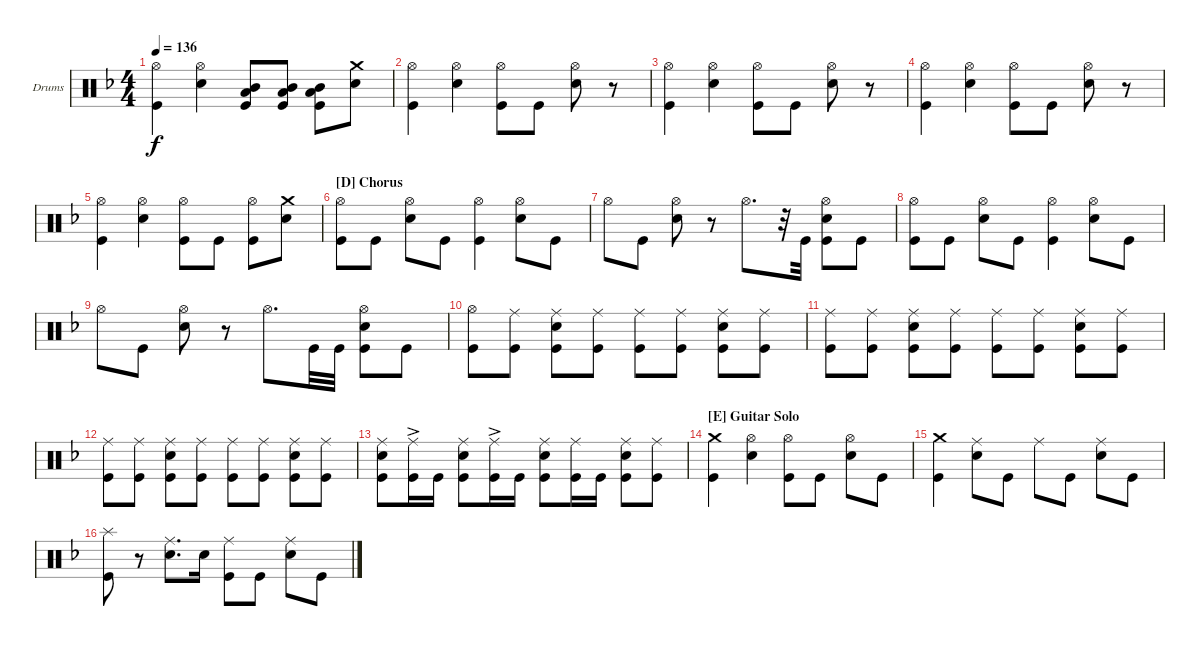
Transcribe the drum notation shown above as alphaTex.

\defaultSystemsLayout 4
\bracketExtendMode groupsimilarinstruments
\firstSystemTrackNameOrientation horizontal
\otherSystemsTrackNameOrientation horizontal
\track ("Drumkit" "Drums") {instrument percussion}
\staff {score}
\articulation defaults
\ts (4 4)
\tempo 136
\clef neutral
\scale
0.958386
\ks f
("Hi-Hat (open)" "Kick (hit)").4{dy f} ("Hi-Hat (open)" "Snare (hit) 2").4 ("Kick (hit)" "Mid Tom (hit)" "Low Tom (hit)").8 ("Kick (hit)" "Mid Tom (hit)" "Low Tom (hit)").8 ("Kick (hit)" "Mid Tom (hit)" "Low Tom (hit)").8 ("Crash medium (hit)" "Snare (hit) 2").8 |
\scale
1.08323 ("Hi-Hat (open)" "Kick (hit)").4 ("Hi-Hat (open)" "Snare (hit) 2").4 ("Hi-Hat (open)" "Kick (hit)").8 "Kick (hit)".8 ("Hi-Hat (open)" "Snare (hit) 2").8 r.8 |
\scale
0.958386 ("Hi-Hat (open)" "Kick (hit)").4 ("Hi-Hat (open)" "Snare (hit) 2").4 ("Hi-Hat (open)" "Kick (hit)").8 "Kick (hit)".8 ("Hi-Hat (open)" "Snare (hit) 2").8 r.8 |
\scale
0.958386 ("Hi-Hat (open)" "Kick (hit)").4 ("Hi-Hat (open)" "Snare (hit) 2").4 ("Hi-Hat (open)" "Kick (hit)").8 "Kick (hit)".8 ("Hi-Hat (open)" "Snare (hit) 2").8 r.8 |
\scale
1.08323 ("Hi-Hat (open)" "Kick (hit)").4 ("Hi-Hat (open)" "Snare (hit) 2").4 ("Kick (hit)" "Hi-Hat (open)").8 "Kick (hit)".8 ("Kick (hit)" "Hi-Hat (open)").8 ("Crash medium (hit)" "Snare (hit) 2").8 |
\section ("D" "Chorus")
\scale
0.958386 ("Hi-Hat (open)" "Kick (hit)").8 "Kick (hit)".8 ("Hi-Hat (open)" "Snare (hit) 2").8 "Kick (hit)".8 ("Hi-Hat (open)" "Kick (hit)").4 ("Hi-Hat (open)" "Snare (hit) 2").8 "Kick (hit)".8 |
\scale
0.958386 "Hi-Hat (open)".8 "Kick (hit)".8 ("Hi-Hat (open)" "Snare (hit) 2").8 r.8 "Hi-Hat (open)".8{d} r.32 "Kick (hit)".32 ("Hi-Hat (open)" "Snare (hit) 2" "Kick (hit)").8 "Kick (hit)".8 |
\scale
1.08323 ("Hi-Hat (open)" "Kick (hit)").8 "Kick (hit)".8 ("Hi-Hat (open)" "Snare (hit) 2").8 "Kick (hit)".8 ("Hi-Hat (open)" "Kick (hit)").4 ("Hi-Hat (open)" "Snare (hit) 2").8 "Kick (hit)".8 |
\scale
0.958386 "Hi-Hat (open)".8 "Kick (hit)".8 ("Hi-Hat (open)" "Snare (hit) 2").8 r.8 "Hi-Hat (open)".8{d} "Kick (hit)".32 "Kick (hit)".32 ("Hi-Hat (open)" "Snare (hit) 2" "Kick (hit)").8 "Kick (hit)".8 |
\scale
0.958386 ("Hi-Hat (open)" "Kick (hit)").8 ("Ride (middle)" "Kick (hit)").8 ("Ride (middle)" "Kick (hit)" "Snare (hit) 2").8 ("Ride (middle)" "Kick (hit)").8 ("Ride (middle)" "Kick (hit)").8 ("Ride (middle)" "Kick (hit)").8 ("Ride (middle)" "Kick (hit)" "Snare (hit) 2").8 ("Ride (middle)" "Kick (hit)").8 |
\scale
1.08323 ("Ride (middle)" "Kick (hit)").8 ("Ride (middle)" "Kick (hit)").8 ("Ride (middle)" "Kick (hit)" "Snare (hit) 2").8 ("Ride (middle)" "Kick (hit)").8 ("Ride (middle)" "Kick (hit)").8 ("Ride (middle)" "Kick (hit)").8 ("Ride (middle)" "Kick (hit)" "Snare (hit) 2").8 ("Ride (middle)" "Kick (hit)").8 |
\scale
0.958386 ("Ride (middle)" "Kick (hit)").8 ("Ride (middle)" "Kick (hit)").8 ("Ride (middle)" "Kick (hit)" "Snare (hit) 2").8 ("Ride (middle)" "Kick (hit)").8 ("Ride (middle)" "Kick (hit)").8 ("Ride (middle)" "Kick (hit)").8 ("Ride (middle)" "Kick (hit)" "Snare (hit) 2").8 ("Ride (middle)" "Kick (hit)").8 |
\scale
0.958386 ("Ride (middle)" "Snare (hit) 2" "Kick (hit)").8 ("Ride (middle)"{ac} "Kick (hit)").16 "Kick (hit)".16 ("Ride (middle)" "Snare (hit) 2" "Kick (hit)").8 ("Ride (middle)"{ac} "Kick (hit)").16 "Kick (hit)".16 ("Ride (middle)" "Snare (hit) 2" "Kick (hit)").8 ("Ride (middle)" "Kick (hit)").16 "Kick (hit)".16 ("Ride (middle)" "Kick (hit)" "Snare (hit) 2").8 ("Ride (middle)" "Kick (hit)").8 |
\section ("E" "Guitar Solo")
\scale
1.08323 ("Crash medium (hit)" "Kick (hit)").4 ("Hi-Hat (open)" "Snare (hit) 2").4 ("Hi-Hat (open)" "Kick (hit)").8 "Kick (hit)".8 ("Hi-Hat (open)" "Snare (hit) 2").8 "Kick (hit)".8 |
\scale
0.958386 ("Crash medium (hit)" "Kick (hit)").4 ("Ride (middle)" "Snare (hit) 2").8 "Kick (hit)".8 "Ride (middle)".8 "Kick (hit)".8 ("Ride (middle)" "Snare (hit) 2").8 "Kick (hit)".8 |
\scale
0.958386 ("Splash (hit)" "Kick (hit)").8 r.8 ("Ride (middle)" "Snare (hit) 2").8{d} "Snare (hit) 2".16 ("Ride (middle)" "Kick (hit)").8 "Kick (hit)".8 ("Ride (middle)" "Snare (hit) 2").8 "Kick (hit)".8
